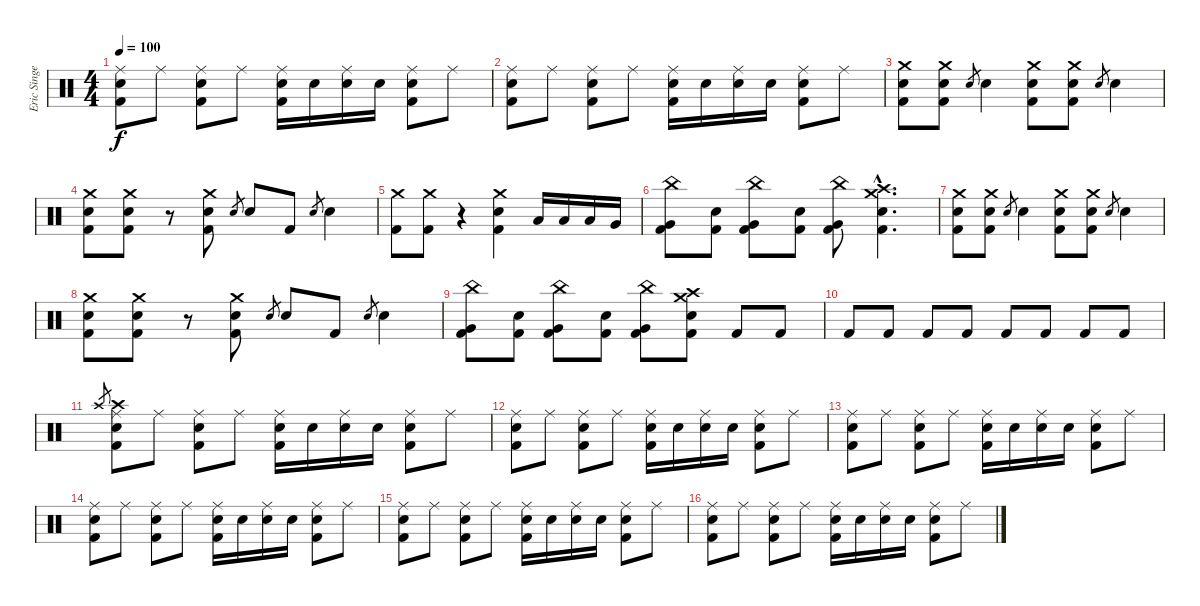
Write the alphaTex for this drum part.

\track ("Eric Singer" "Eric Singe") {instrument percussion}
\staff {score}
\articulation defaults
\ts (4 4)
\tempo 100
\clef neutral
\ks c
("Ride (middle)" "Snare (hit) 2" "Kick (hit) 2").8{dy f} "Ride (middle)".8 ("Ride (middle)" "Snare (hit) 2" "Kick (hit) 2").8 "Ride (middle)".8 ("Ride (middle)" "Snare (hit) 2" "Kick (hit) 2").16 "Snare (hit) 2".16 ("Ride (middle)" "Snare (hit) 2").16 "Snare (hit) 2".16 ("Ride (middle)" "Snare (hit) 2" "Kick (hit) 2").8 "Ride (middle)".8 |
("Ride (middle)" "Snare (hit) 2" "Kick (hit) 2").8 "Ride (middle)".8 ("Ride (middle)" "Snare (hit) 2" "Kick (hit) 2").8 "Ride (middle)".8 ("Ride (middle)" "Snare (hit) 2" "Kick (hit) 2").16 "Snare (hit) 2".16 ("Ride (middle)" "Snare (hit) 2").16 "Snare (hit) 2".16 ("Ride (middle)" "Snare (hit) 2" "Kick (hit) 2").8 "Ride (middle)".8 |
("Crash medium (hit)" "Snare (hit) 2" "Kick (hit) 2").8 ("Crash medium (hit)" "Snare (hit) 2" "Kick (hit) 2").8 "Electric Snare (hit)".8{gr} "Electric Snare (hit)".4 ("Crash medium (hit)" "Snare (hit) 2" "Kick (hit) 2").8 ("Crash medium (hit)" "Snare (hit) 2" "Kick (hit) 2").8 "Electric Snare (hit)".8{gr} "Electric Snare (hit)".4 |
("Crash medium (hit)" "Snare (hit) 2" "Kick (hit) 2").8 ("Crash medium (hit)" "Snare (hit) 2" "Kick (hit) 2").8 r.8 ("Crash medium (hit)" "Snare (hit) 2" "Kick (hit) 2").8 "Electric Snare (hit)".8{gr} "Electric Snare (hit)".8 "Kick (hit) 2".8 "Electric Snare (hit)".8{gr} "Electric Snare (hit)".4 |
("Kick (hit) 2" "Crash medium (hit)").8 ("Kick (hit) 2" "Crash medium (hit)").8 r.4 ("Crash medium (hit)" "Snare (hit) 2" "Kick (hit) 2").4 "Low Tom (hit)".16 "Low Tom (hit)".16 "Low Tom (hit)".16 "Very Low Tom (hit)".16 |
("Very Low Tom (hit)" "China (hit)" "Kick (hit) 2").8 ("Kick (hit) 2" "Snare (hit) 2").8 ("Very Low Tom (hit)" "China (hit)" "Kick (hit) 2").8 ("Kick (hit) 2" "Snare (hit) 2").8 ("Very Low Tom (hit)" "China (hit)" "Kick (hit) 2").8 ("Crash medium (hit)"{hac} "Crash high (hit)"{hac} "Kick (hit) 2"{hac} "Snare (hit) 2"{hac}).4{d} |
("Crash medium (hit)" "Snare (hit) 2" "Kick (hit) 2").8 ("Crash medium (hit)" "Snare (hit) 2" "Kick (hit) 2").8 "Electric Snare (hit)".8{gr} "Electric Snare (hit)".4 ("Crash medium (hit)" "Snare (hit) 2" "Kick (hit) 2").8 ("Crash medium (hit)" "Snare (hit) 2" "Kick (hit) 2").8 "Electric Snare (hit)".8{gr} "Electric Snare (hit)".4 |
("Crash medium (hit)" "Snare (hit) 2" "Kick (hit) 2").8 ("Crash medium (hit)" "Snare (hit) 2" "Kick (hit) 2").8 r.8 ("Crash medium (hit)" "Snare (hit) 2" "Kick (hit) 2").8 "Electric Snare (hit)".8{gr} "Electric Snare (hit)".8 "Kick (hit) 2".8 "Electric Snare (hit)".8{gr} "Electric Snare (hit)".4 |
("Very Low Tom (hit)" "China (hit)" "Kick (hit) 2").8 ("Kick (hit) 2" "Snare (hit) 2").8 ("Very Low Tom (hit)" "China (hit)" "Kick (hit) 2").8 ("Kick (hit) 2" "Snare (hit) 2").8 ("Very Low Tom (hit)" "China (hit)" "Kick (hit) 2").8 ("Crash medium (hit)" "Crash high (hit)" "Kick (hit) 2" "Snare (hit) 2").8 "Kick (hit) 2".8 "Kick (hit) 2".8 |
"Kick (hit) 2".8 "Kick (hit) 2".8 "Kick (hit) 2".8 "Kick (hit) 2".8 "Kick (hit) 2".8 "Kick (hit) 2".8 "Kick (hit) 2".8 "Kick (hit) 2".8 |
"Crash high (hit)".8{gr} ("Ride (middle)" "Crash high (hit)" "Snare (hit) 2" "Kick (hit) 2").8 "Ride (middle)".8 ("Ride (middle)" "Snare (hit) 2" "Kick (hit) 2").8 "Ride (middle)".8 ("Ride (middle)" "Snare (hit) 2" "Kick (hit) 2").16 "Snare (hit) 2".16 ("Ride (middle)" "Snare (hit) 2").16 "Snare (hit) 2".16 ("Ride (middle)" "Snare (hit) 2" "Kick (hit) 2").8 "Ride (middle)".8 |
("Ride (middle)" "Snare (hit) 2" "Kick (hit) 2").8 "Ride (middle)".8 ("Ride (middle)" "Snare (hit) 2" "Kick (hit) 2").8 "Ride (middle)".8 ("Ride (middle)" "Snare (hit) 2" "Kick (hit) 2").16 "Snare (hit) 2".16 ("Ride (middle)" "Snare (hit) 2").16 "Snare (hit) 2".16 ("Ride (middle)" "Snare (hit) 2" "Kick (hit) 2").8 "Ride (middle)".8 |
("Ride (middle)" "Snare (hit) 2" "Kick (hit) 2").8 "Ride (middle)".8 ("Ride (middle)" "Snare (hit) 2" "Kick (hit) 2").8 "Ride (middle)".8 ("Ride (middle)" "Snare (hit) 2" "Kick (hit) 2").16 "Snare (hit) 2".16 ("Ride (middle)" "Snare (hit) 2").16 "Snare (hit) 2".16 ("Ride (middle)" "Snare (hit) 2" "Kick (hit) 2").8 "Ride (middle)".8 |
("Ride (middle)" "Snare (hit) 2" "Kick (hit) 2").8 "Ride (middle)".8 ("Ride (middle)" "Snare (hit) 2" "Kick (hit) 2").8 "Ride (middle)".8 ("Ride (middle)" "Snare (hit) 2" "Kick (hit) 2").16 "Snare (hit) 2".16 ("Ride (middle)" "Snare (hit) 2").16 "Snare (hit) 2".16 ("Ride (middle)" "Snare (hit) 2" "Kick (hit) 2").8 "Ride (middle)".8 |
("Ride (middle)" "Snare (hit) 2" "Kick (hit) 2").8 "Ride (middle)".8 ("Ride (middle)" "Snare (hit) 2" "Kick (hit) 2").8 "Ride (middle)".8 ("Ride (middle)" "Snare (hit) 2" "Kick (hit) 2").16 "Snare (hit) 2".16 ("Ride (middle)" "Snare (hit) 2").16 "Snare (hit) 2".16 ("Ride (middle)" "Snare (hit) 2" "Kick (hit) 2").8 "Ride (middle)".8 |
("Ride (middle)" "Snare (hit) 2" "Kick (hit) 2").8 "Ride (middle)".8 ("Ride (middle)" "Snare (hit) 2" "Kick (hit) 2").8 "Ride (middle)".8 ("Ride (middle)" "Snare (hit) 2" "Kick (hit) 2").16 "Snare (hit) 2".16 ("Ride (middle)" "Snare (hit) 2").16 "Snare (hit) 2".16 ("Ride (middle)" "Snare (hit) 2" "Kick (hit) 2").8 "Ride (middle)".8
